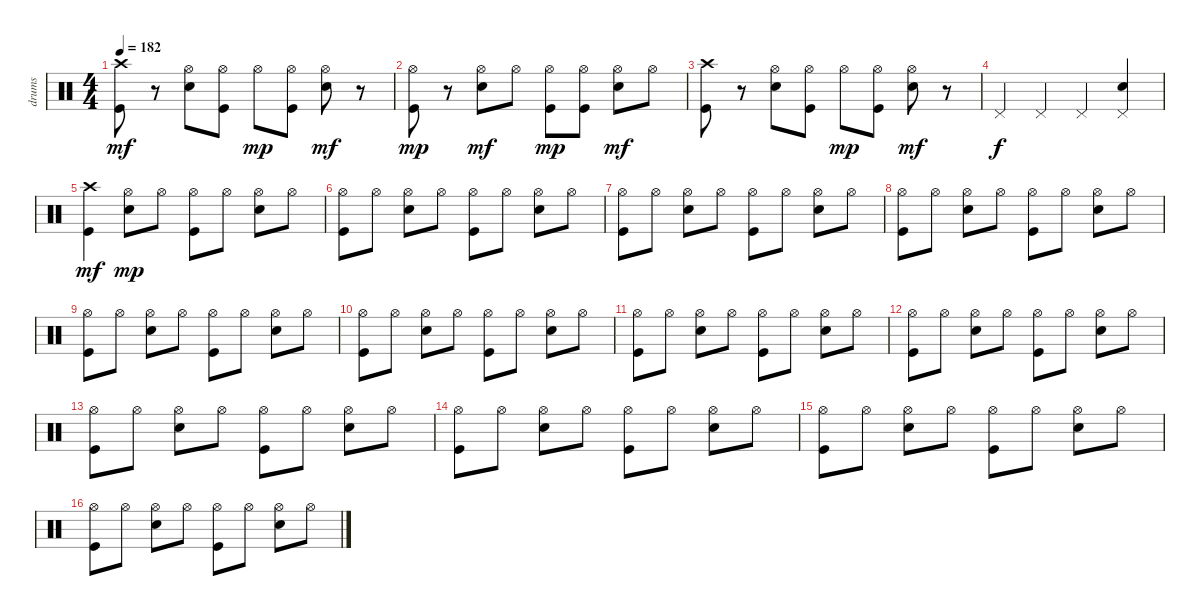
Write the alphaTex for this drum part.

\track ("drums" "drums") {instrument percussion}
\staff {score}
\articulation defaults
\ts (4 4)
\tempo 182
\clef neutral
\ks c
("Kick (hit)" "Crash high (hit)").8{dy mf} r.8 ("Snare (hit) 2" "Hi-Hat (open)").8 ("Kick (hit)" "Hi-Hat (open)").8 "Hi-Hat (open)".8{dy mp} ("Kick (hit)" "Hi-Hat (open)").8 ("Snare (hit) 2" "Hi-Hat (open)").8{dy mf} r.8 |
("Kick (hit)" "Hi-Hat (open)").8{dy mp} r.8 ("Snare (hit) 2" "Hi-Hat (open)").8{dy mf} "Hi-Hat (open)".8 ("Kick (hit)" "Hi-Hat (open)").8{dy mp} ("Kick (hit)" "Hi-Hat (open)").8 ("Snare (hit) 2" "Hi-Hat (open)").8{dy mf} "Hi-Hat (open)".8 |
("Kick (hit)" "Crash high (hit)").8 r.8 ("Snare (hit) 2" "Hi-Hat (open)").8 ("Kick (hit)" "Hi-Hat (open)").8 "Hi-Hat (open)".8{dy mp} ("Kick (hit)" "Hi-Hat (open)").8 ("Snare (hit) 2" "Hi-Hat (open)").8{dy mf} r.8 |
"Pedal Hi-Hat (hit)".4{dy f} "Pedal Hi-Hat (hit)".4 "Pedal Hi-Hat (hit)".4 ("Snare (hit) 2" "Pedal Hi-Hat (hit)").4 |
("Kick (hit)" "Crash high (hit)").4{dy mf} ("Snare (hit) 2" "Hi-Hat (open)").8{dy mp} "Hi-Hat (open)".8 ("Kick (hit)" "Hi-Hat (open)").8 "Hi-Hat (open)".8 ("Snare (hit) 2" "Hi-Hat (open)").8 "Hi-Hat (open)".8 |
("Kick (hit)" "Hi-Hat (open)").8 "Hi-Hat (open)".8 ("Snare (hit) 2" "Hi-Hat (open)").8 "Hi-Hat (open)".8 ("Kick (hit)" "Hi-Hat (open)").8 "Hi-Hat (open)".8 ("Snare (hit) 2" "Hi-Hat (open)").8 "Hi-Hat (open)".8 |
("Kick (hit)" "Hi-Hat (open)").8 "Hi-Hat (open)".8 ("Snare (hit) 2" "Hi-Hat (open)").8 "Hi-Hat (open)".8 ("Kick (hit)" "Hi-Hat (open)").8 "Hi-Hat (open)".8 ("Snare (hit) 2" "Hi-Hat (open)").8 "Hi-Hat (open)".8 |
("Kick (hit)" "Hi-Hat (open)").8 "Hi-Hat (open)".8 ("Snare (hit) 2" "Hi-Hat (open)").8 "Hi-Hat (open)".8 ("Kick (hit)" "Hi-Hat (open)").8 "Hi-Hat (open)".8 ("Snare (hit) 2" "Hi-Hat (open)").8 "Hi-Hat (open)".8 |
("Kick (hit)" "Hi-Hat (open)").8 "Hi-Hat (open)".8 ("Snare (hit) 2" "Hi-Hat (open)").8 "Hi-Hat (open)".8 ("Kick (hit)" "Hi-Hat (open)").8 "Hi-Hat (open)".8 ("Snare (hit) 2" "Hi-Hat (open)").8 "Hi-Hat (open)".8 |
("Kick (hit)" "Hi-Hat (open)").8 "Hi-Hat (open)".8 ("Snare (hit) 2" "Hi-Hat (open)").8 "Hi-Hat (open)".8 ("Kick (hit)" "Hi-Hat (open)").8 "Hi-Hat (open)".8 ("Snare (hit) 2" "Hi-Hat (open)").8 "Hi-Hat (open)".8 |
("Kick (hit)" "Hi-Hat (open)").8 "Hi-Hat (open)".8 ("Snare (hit) 2" "Hi-Hat (open)").8 "Hi-Hat (open)".8 ("Kick (hit)" "Hi-Hat (open)").8 "Hi-Hat (open)".8 ("Snare (hit) 2" "Hi-Hat (open)").8 "Hi-Hat (open)".8 |
("Kick (hit)" "Hi-Hat (open)").8 "Hi-Hat (open)".8 ("Snare (hit) 2" "Hi-Hat (open)").8 "Hi-Hat (open)".8 ("Kick (hit)" "Hi-Hat (open)").8 "Hi-Hat (open)".8 ("Snare (hit) 2" "Hi-Hat (open)").8 "Hi-Hat (open)".8 |
("Kick (hit)" "Hi-Hat (open)").8 "Hi-Hat (open)".8 ("Snare (hit) 2" "Hi-Hat (open)").8 "Hi-Hat (open)".8 ("Kick (hit)" "Hi-Hat (open)").8 "Hi-Hat (open)".8 ("Snare (hit) 2" "Hi-Hat (open)").8 "Hi-Hat (open)".8 |
("Kick (hit)" "Hi-Hat (open)").8 "Hi-Hat (open)".8 ("Snare (hit) 2" "Hi-Hat (open)").8 "Hi-Hat (open)".8 ("Kick (hit)" "Hi-Hat (open)").8 "Hi-Hat (open)".8 ("Snare (hit) 2" "Hi-Hat (open)").8 "Hi-Hat (open)".8 |
("Kick (hit)" "Hi-Hat (open)").8 "Hi-Hat (open)".8 ("Snare (hit) 2" "Hi-Hat (open)").8 "Hi-Hat (open)".8 ("Kick (hit)" "Hi-Hat (open)").8 "Hi-Hat (open)".8 ("Snare (hit) 2" "Hi-Hat (open)").8 "Hi-Hat (open)".8 |
("Kick (hit)" "Hi-Hat (open)").8 "Hi-Hat (open)".8 ("Snare (hit) 2" "Hi-Hat (open)").8 "Hi-Hat (open)".8 ("Kick (hit)" "Hi-Hat (open)").8 "Hi-Hat (open)".8 ("Snare (hit) 2" "Hi-Hat (open)").8 "Hi-Hat (open)".8
